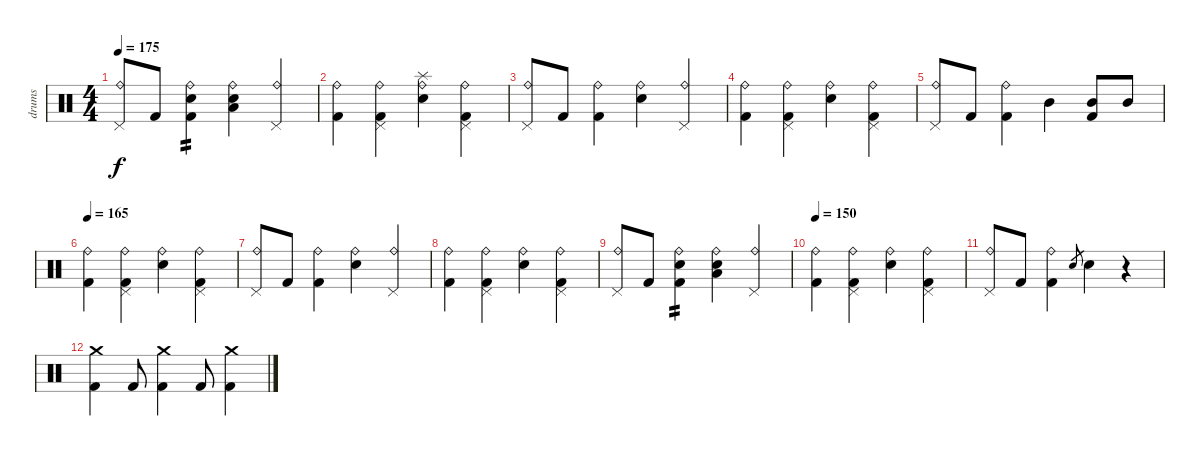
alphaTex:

\track ("drums" "drums") {instrument percussion}
\staff {score}
\articulation defaults
\ts (4 4)
\tempo 175
\clef neutral
\ks c
("Ride (bell)" "Pedal Hi-Hat (hit)").8{dy f} "Kick (hit) 2".8 ("Electric Snare (hit)" "Ride (bell)" "Kick (hit) 2").4{tp 2} ("Low Tom (hit)" "Ride (bell)" "Electric Snare (hit)").4 ("Ride (bell)" "Pedal Hi-Hat (hit)").4 |
("Ride (bell)" "Kick (hit) 2").4 ("Ride (bell)" "Pedal Hi-Hat (hit)" "Kick (hit) 2").4 ("Splash (hit)" "Ride (bell)" "Electric Snare (hit)").4 ("Ride (bell)" "Pedal Hi-Hat (hit)" "Kick (hit) 2").4 |
("Ride (bell)" "Pedal Hi-Hat (hit)").8 "Kick (hit) 2".8 ("Ride (bell)" "Kick (hit) 2").4 ("Ride (bell)" "Electric Snare (hit)").4 ("Ride (bell)" "Pedal Hi-Hat (hit)").4 |
("Ride (bell)" "Kick (hit) 2").4 ("Ride (bell)" "Pedal Hi-Hat (hit)" "Kick (hit) 2").4 ("Ride (bell)" "Electric Snare (hit)").4 ("Ride (bell)" "Pedal Hi-Hat (hit)" "Kick (hit) 2").4 |
("Ride (bell)" "Pedal Hi-Hat (hit)").8 "Kick (hit) 2".8 ("Ride (bell)" "Kick (hit) 2").4 "Mid Tom (hit)".4 ("Mid Tom (hit)" "Kick (hit) 2").8 "Mid Tom (hit)".8 |
\tempo 165
("Ride (bell)" "Kick (hit) 2").4 ("Ride (bell)" "Pedal Hi-Hat (hit)" "Kick (hit) 2").4 ("Ride (bell)" "Electric Snare (hit)").4 ("Ride (bell)" "Pedal Hi-Hat (hit)" "Kick (hit) 2").4 |
("Ride (bell)" "Pedal Hi-Hat (hit)").8 "Kick (hit) 2".8 ("Ride (bell)" "Kick (hit) 2").4 ("Ride (bell)" "Electric Snare (hit)").4 ("Ride (bell)" "Pedal Hi-Hat (hit)").4 |
("Ride (bell)" "Kick (hit) 2").4 ("Ride (bell)" "Pedal Hi-Hat (hit)" "Kick (hit) 2").4 ("Ride (bell)" "Electric Snare (hit)").4 ("Ride (bell)" "Pedal Hi-Hat (hit)" "Kick (hit) 2").4 |
("Ride (bell)" "Pedal Hi-Hat (hit)").8 "Kick (hit) 2".8 ("Electric Snare (hit)" "Ride (bell)" "Kick (hit) 2").4{tp 2} ("Low Tom (hit)" "Ride (bell)" "Electric Snare (hit)").4 ("Ride (bell)" "Pedal Hi-Hat (hit)").4 |
\tempo 150
("Ride (bell)" "Kick (hit) 2").4 ("Ride (bell)" "Pedal Hi-Hat (hit)" "Kick (hit) 2").4 ("Ride (bell)" "Electric Snare (hit)").4 ("Ride (bell)" "Pedal Hi-Hat (hit)" "Kick (hit) 2").4 |
("Ride (bell)" "Pedal Hi-Hat (hit)").8 "Kick (hit) 2".8 ("Ride (bell)" "Kick (hit) 2").4 "Electric Snare (hit)".8{gr} "Electric Snare (hit)".4 r.4 |
("Crash medium (hit)" "Kick (hit) 2").4 "Kick (hit) 2".8 ("Crash medium (hit)" "Kick (hit) 2").4 "Kick (hit) 2".8 ("Crash medium (hit)" "Kick (hit) 2").4
